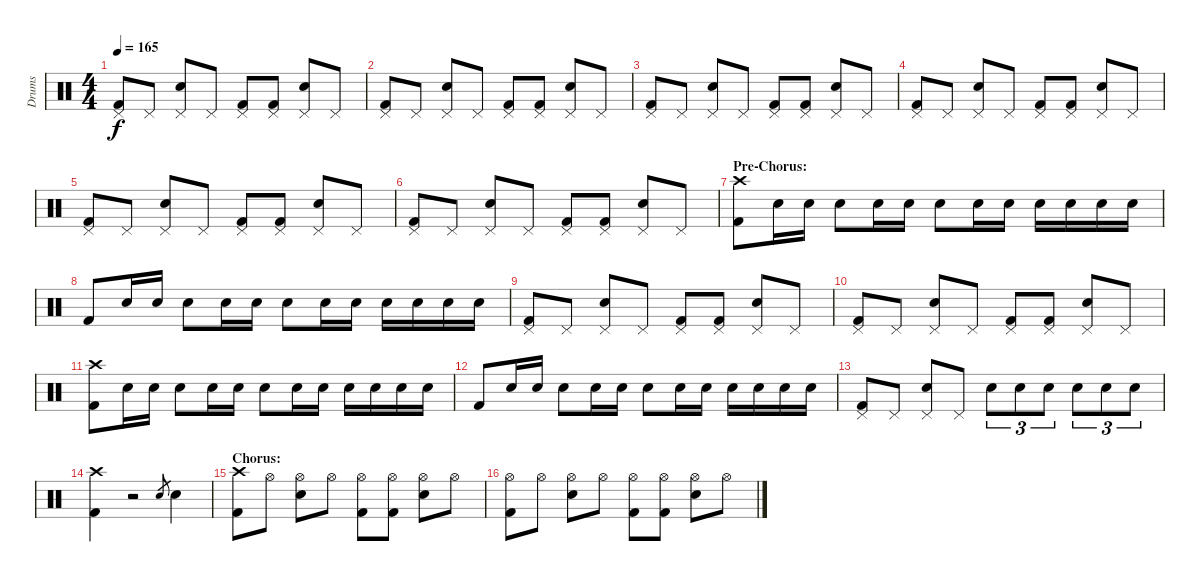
\track ("Drums" "Drums") {instrument percussion}
\staff {score}
\articulation defaults
\ts (4 4)
\tempo 165
\clef neutral
\ks c
("Pedal Hi-Hat (hit)" "Kick (hit) 2").8{dy f} "Pedal Hi-Hat (hit)".8 ("Pedal Hi-Hat (hit)" "Electric Snare (hit)").8 "Pedal Hi-Hat (hit)".8 ("Pedal Hi-Hat (hit)" "Kick (hit) 2").8 ("Pedal Hi-Hat (hit)" "Kick (hit) 2").8 ("Pedal Hi-Hat (hit)" "Electric Snare (hit)").8 "Pedal Hi-Hat (hit)".8 |
("Pedal Hi-Hat (hit)" "Kick (hit) 2").8 "Pedal Hi-Hat (hit)".8 ("Pedal Hi-Hat (hit)" "Electric Snare (hit)").8 "Pedal Hi-Hat (hit)".8 ("Pedal Hi-Hat (hit)" "Kick (hit) 2").8 ("Pedal Hi-Hat (hit)" "Kick (hit) 2").8 ("Pedal Hi-Hat (hit)" "Electric Snare (hit)").8 "Pedal Hi-Hat (hit)".8 |
("Pedal Hi-Hat (hit)" "Kick (hit) 2").8 "Pedal Hi-Hat (hit)".8 ("Pedal Hi-Hat (hit)" "Electric Snare (hit)").8 "Pedal Hi-Hat (hit)".8 ("Pedal Hi-Hat (hit)" "Kick (hit) 2").8 ("Pedal Hi-Hat (hit)" "Kick (hit) 2").8 ("Pedal Hi-Hat (hit)" "Electric Snare (hit)").8 "Pedal Hi-Hat (hit)".8 |
("Pedal Hi-Hat (hit)" "Kick (hit) 2").8 "Pedal Hi-Hat (hit)".8 ("Pedal Hi-Hat (hit)" "Electric Snare (hit)").8 "Pedal Hi-Hat (hit)".8 ("Pedal Hi-Hat (hit)" "Kick (hit) 2").8 ("Pedal Hi-Hat (hit)" "Kick (hit) 2").8 ("Pedal Hi-Hat (hit)" "Electric Snare (hit)").8 "Pedal Hi-Hat (hit)".8 |
("Pedal Hi-Hat (hit)" "Kick (hit) 2").8 "Pedal Hi-Hat (hit)".8 ("Pedal Hi-Hat (hit)" "Electric Snare (hit)").8 "Pedal Hi-Hat (hit)".8 ("Pedal Hi-Hat (hit)" "Kick (hit) 2").8 ("Pedal Hi-Hat (hit)" "Kick (hit) 2").8 ("Pedal Hi-Hat (hit)" "Electric Snare (hit)").8 "Pedal Hi-Hat (hit)".8 |
("Pedal Hi-Hat (hit)" "Kick (hit) 2").8 "Pedal Hi-Hat (hit)".8 ("Pedal Hi-Hat (hit)" "Electric Snare (hit)").8 "Pedal Hi-Hat (hit)".8 ("Pedal Hi-Hat (hit)" "Kick (hit) 2").8 ("Pedal Hi-Hat (hit)" "Kick (hit) 2").8 ("Pedal Hi-Hat (hit)" "Electric Snare (hit)").8 "Pedal Hi-Hat (hit)".8 |
\section ("" "Pre-Chorus:")
("Crash high (hit)" "Kick (hit) 2").8 "Electric Snare (hit)".16 "Electric Snare (hit)".16 "Electric Snare (hit)".8 "Electric Snare (hit)".16 "Electric Snare (hit)".16 "Electric Snare (hit)".8 "Electric Snare (hit)".16 "Electric Snare (hit)".16 "Electric Snare (hit)".16 "Electric Snare (hit)".16 "Electric Snare (hit)".16 "Electric Snare (hit)".16 |
"Kick (hit) 2".8 "Electric Snare (hit)".16 "Electric Snare (hit)".16 "Electric Snare (hit)".8 "Electric Snare (hit)".16 "Electric Snare (hit)".16 "Electric Snare (hit)".8 "Electric Snare (hit)".16 "Electric Snare (hit)".16 "Electric Snare (hit)".16 "Electric Snare (hit)".16 "Electric Snare (hit)".16 "Electric Snare (hit)".16 |
("Pedal Hi-Hat (hit)" "Kick (hit) 2").8 "Pedal Hi-Hat (hit)".8 ("Pedal Hi-Hat (hit)" "Electric Snare (hit)").8 "Pedal Hi-Hat (hit)".8 ("Pedal Hi-Hat (hit)" "Kick (hit) 2").8 ("Pedal Hi-Hat (hit)" "Kick (hit) 2").8 ("Pedal Hi-Hat (hit)" "Electric Snare (hit)").8 "Pedal Hi-Hat (hit)".8 |
("Pedal Hi-Hat (hit)" "Kick (hit) 2").8 "Pedal Hi-Hat (hit)".8 ("Pedal Hi-Hat (hit)" "Electric Snare (hit)").8 "Pedal Hi-Hat (hit)".8 ("Pedal Hi-Hat (hit)" "Kick (hit) 2").8 ("Pedal Hi-Hat (hit)" "Kick (hit) 2").8 ("Pedal Hi-Hat (hit)" "Electric Snare (hit)").8 "Pedal Hi-Hat (hit)".8 |
("Crash high (hit)" "Kick (hit) 2").8 "Electric Snare (hit)".16 "Electric Snare (hit)".16 "Electric Snare (hit)".8 "Electric Snare (hit)".16 "Electric Snare (hit)".16 "Electric Snare (hit)".8 "Electric Snare (hit)".16 "Electric Snare (hit)".16 "Electric Snare (hit)".16 "Electric Snare (hit)".16 "Electric Snare (hit)".16 "Electric Snare (hit)".16 |
"Kick (hit) 2".8 "Electric Snare (hit)".16 "Electric Snare (hit)".16 "Electric Snare (hit)".8 "Electric Snare (hit)".16 "Electric Snare (hit)".16 "Electric Snare (hit)".8 "Electric Snare (hit)".16 "Electric Snare (hit)".16 "Electric Snare (hit)".16 "Electric Snare (hit)".16 "Electric Snare (hit)".16 "Electric Snare (hit)".16 |
("Pedal Hi-Hat (hit)" "Kick (hit) 2").8 "Pedal Hi-Hat (hit)".8 ("Pedal Hi-Hat (hit)" "Electric Snare (hit)").8 "Pedal Hi-Hat (hit)".8 "Electric Snare (hit)".8{tu (3 2)} "Electric Snare (hit)".8{tu (3 2)} "Electric Snare (hit)".8{tu (3 2)} "Electric Snare (hit)".8{tu (3 2)} "Electric Snare (hit)".8{tu (3 2)} "Electric Snare (hit)".8{tu (3 2)} |
("Crash high (hit)" "Kick (hit) 2").4 r.2 "Electric Snare (hit)".8{gr} "Electric Snare (hit)".4 |
\section ("" "Chorus:")
("Crash high (hit)" "Kick (hit) 2").8 "Hi-Hat (open)".8 ("Hi-Hat (open)" "Electric Snare (hit)").8 "Hi-Hat (open)".8 ("Hi-Hat (open)" "Kick (hit) 2").8 ("Hi-Hat (open)" "Kick (hit) 2").8 ("Hi-Hat (open)" "Electric Snare (hit)").8 "Hi-Hat (open)".8 |
("Hi-Hat (open)" "Kick (hit) 2").8 "Hi-Hat (open)".8 ("Hi-Hat (open)" "Electric Snare (hit)").8 "Hi-Hat (open)".8 ("Hi-Hat (open)" "Kick (hit) 2").8 ("Hi-Hat (open)" "Kick (hit) 2").8 ("Hi-Hat (open)" "Electric Snare (hit)").8 "Hi-Hat (open)".8
